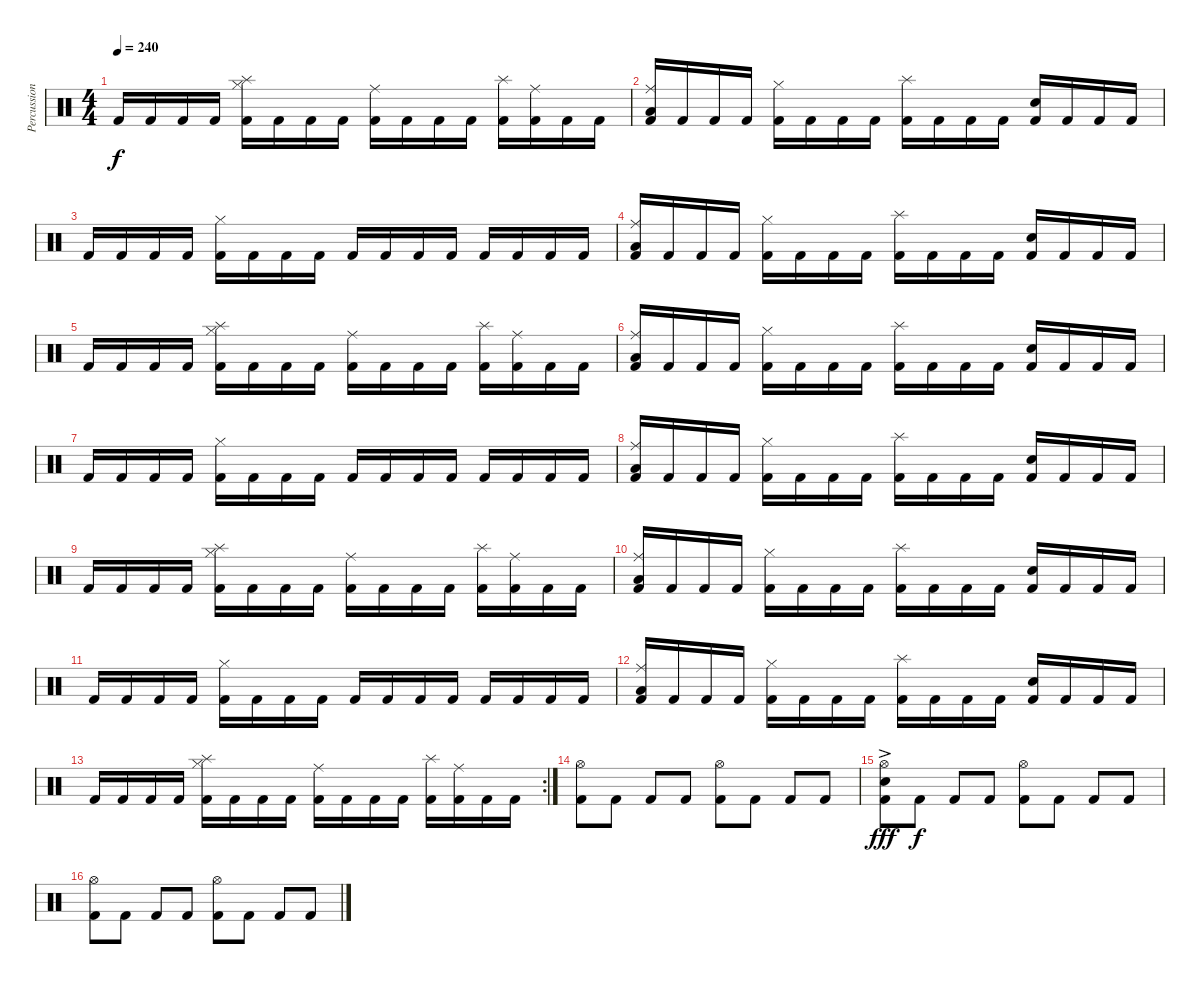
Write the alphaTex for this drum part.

\track ("Percussion" "Percussion") {instrument percussion}
\staff {score}
\articulation defaults
\ts (4 4)
\tempo 240
\clef neutral
\ks c "Kick (hit) 2".16{dy f} "Kick (hit) 2".16 "Kick (hit) 2".16 "Kick (hit) 2".16
("Kick (hit) 2" "Hi-Hat (closed)" "Splash (hit)").16 "Kick (hit) 2".16 "Kick (hit) 2".16 "Kick (hit) 2".16 ("Kick (hit) 2" "Ride (middle)").16 "Kick (hit) 2".16 "Kick (hit) 2".16 "Kick (hit) 2".16 ("Kick (hit) 2" "Splash (hit)").16 ("Kick (hit) 2" "Ride (middle)").16 "Kick (hit) 2".16 "Kick (hit) 2".16 |
("Kick (hit) 2" "Low Floor Tom (hit)" "Ride (middle)").16 "Kick (hit) 2".16 "Kick (hit) 2".16 "Kick (hit) 2".16 ("Kick (hit) 2" "Hi-Hat (closed)").16 "Kick (hit) 2".16 "Kick (hit) 2".16 "Kick (hit) 2".16 ("Kick (hit) 2" "Splash (hit)").16 "Kick (hit) 2".16 "Kick (hit) 2".16 "Kick (hit) 2".16 ("Kick (hit) 2" "Electric Snare (hit)").16 "Kick (hit) 2".16 "Kick (hit) 2".16 "Kick (hit) 2".16 |
"Kick (hit) 2".16 "Kick (hit) 2".16 "Kick (hit) 2".16 "Kick (hit) 2".16 ("Kick (hit) 2" "Hi-Hat (closed)").16 "Kick (hit) 2".16 "Kick (hit) 2".16 "Kick (hit) 2".16 "Kick (hit) 2".16 "Kick (hit) 2".16 "Kick (hit) 2".16 "Kick (hit) 2".16 "Kick (hit) 2".16 "Kick (hit) 2".16 "Kick (hit) 2".16 "Kick (hit) 2".16 |
("Kick (hit) 2" "Low Floor Tom (hit)" "Ride (middle)").16 "Kick (hit) 2".16 "Kick (hit) 2".16 "Kick (hit) 2".16 ("Kick (hit) 2" "Hi-Hat (closed)").16 "Kick (hit) 2".16 "Kick (hit) 2".16 "Kick (hit) 2".16 ("Kick (hit) 2" "Splash (hit)").16 "Kick (hit) 2".16 "Kick (hit) 2".16 "Kick (hit) 2".16 ("Kick (hit) 2" "Electric Snare (hit)").16 "Kick (hit) 2".16 "Kick (hit) 2".16 "Kick (hit) 2".16 |
"Kick (hit) 2".16 "Kick (hit) 2".16 "Kick (hit) 2".16 "Kick (hit) 2".16 ("Kick (hit) 2" "Hi-Hat (closed)" "Splash (hit)").16 "Kick (hit) 2".16 "Kick (hit) 2".16 "Kick (hit) 2".16 ("Kick (hit) 2" "Ride (middle)").16 "Kick (hit) 2".16 "Kick (hit) 2".16 "Kick (hit) 2".16 ("Kick (hit) 2" "Splash (hit)").16 ("Kick (hit) 2" "Ride (middle)").16 "Kick (hit) 2".16 "Kick (hit) 2".16 |
("Kick (hit) 2" "Low Floor Tom (hit)" "Ride (middle)").16 "Kick (hit) 2".16 "Kick (hit) 2".16 "Kick (hit) 2".16 ("Kick (hit) 2" "Hi-Hat (closed)").16 "Kick (hit) 2".16 "Kick (hit) 2".16 "Kick (hit) 2".16 ("Kick (hit) 2" "Splash (hit)").16 "Kick (hit) 2".16 "Kick (hit) 2".16 "Kick (hit) 2".16 ("Kick (hit) 2" "Electric Snare (hit)").16 "Kick (hit) 2".16 "Kick (hit) 2".16 "Kick (hit) 2".16 |
"Kick (hit) 2".16 "Kick (hit) 2".16 "Kick (hit) 2".16 "Kick (hit) 2".16 ("Kick (hit) 2" "Hi-Hat (closed)").16 "Kick (hit) 2".16 "Kick (hit) 2".16 "Kick (hit) 2".16 "Kick (hit) 2".16 "Kick (hit) 2".16 "Kick (hit) 2".16 "Kick (hit) 2".16 "Kick (hit) 2".16 "Kick (hit) 2".16 "Kick (hit) 2".16 "Kick (hit) 2".16 |
("Kick (hit) 2" "Low Floor Tom (hit)" "Ride (middle)").16 "Kick (hit) 2".16 "Kick (hit) 2".16 "Kick (hit) 2".16 ("Kick (hit) 2" "Hi-Hat (closed)").16 "Kick (hit) 2".16 "Kick (hit) 2".16 "Kick (hit) 2".16 ("Kick (hit) 2" "Splash (hit)").16 "Kick (hit) 2".16 "Kick (hit) 2".16 "Kick (hit) 2".16 ("Kick (hit) 2" "Electric Snare (hit)").16 "Kick (hit) 2".16 "Kick (hit) 2".16 "Kick (hit) 2".16 |
"Kick (hit) 2".16 "Kick (hit) 2".16 "Kick (hit) 2".16 "Kick (hit) 2".16 ("Kick (hit) 2" "Hi-Hat (closed)" "Splash (hit)").16 "Kick (hit) 2".16 "Kick (hit) 2".16 "Kick (hit) 2".16 ("Kick (hit) 2" "Ride (middle)").16 "Kick (hit) 2".16 "Kick (hit) 2".16 "Kick (hit) 2".16 ("Kick (hit) 2" "Splash (hit)").16 ("Kick (hit) 2" "Ride (middle)").16 "Kick (hit) 2".16 "Kick (hit) 2".16 |
("Kick (hit) 2" "Low Floor Tom (hit)" "Ride (middle)").16 "Kick (hit) 2".16 "Kick (hit) 2".16 "Kick (hit) 2".16 ("Kick (hit) 2" "Hi-Hat (closed)").16 "Kick (hit) 2".16 "Kick (hit) 2".16 "Kick (hit) 2".16 ("Kick (hit) 2" "Splash (hit)").16 "Kick (hit) 2".16 "Kick (hit) 2".16 "Kick (hit) 2".16 ("Kick (hit) 2" "Electric Snare (hit)").16 "Kick (hit) 2".16 "Kick (hit) 2".16 "Kick (hit) 2".16 |
"Kick (hit) 2".16 "Kick (hit) 2".16 "Kick (hit) 2".16 "Kick (hit) 2".16 ("Kick (hit) 2" "Hi-Hat (closed)").16 "Kick (hit) 2".16 "Kick (hit) 2".16 "Kick (hit) 2".16 "Kick (hit) 2".16 "Kick (hit) 2".16 "Kick (hit) 2".16 "Kick (hit) 2".16 "Kick (hit) 2".16 "Kick (hit) 2".16 "Kick (hit) 2".16 "Kick (hit) 2".16 |
("Kick (hit) 2" "Low Floor Tom (hit)" "Ride (middle)").16 "Kick (hit) 2".16 "Kick (hit) 2".16 "Kick (hit) 2".16 ("Kick (hit) 2" "Hi-Hat (closed)").16 "Kick (hit) 2".16 "Kick (hit) 2".16 "Kick (hit) 2".16 ("Kick (hit) 2" "Splash (hit)").16 "Kick (hit) 2".16 "Kick (hit) 2".16 "Kick (hit) 2".16 ("Kick (hit) 2" "Electric Snare (hit)").16 "Kick (hit) 2".16 "Kick (hit) 2".16 "Kick (hit) 2".16 |
\rc 2 "Kick (hit) 2".16 "Kick (hit) 2".16 "Kick (hit) 2".16 "Kick (hit) 2".16
("Kick (hit) 2" "Hi-Hat (closed)" "Splash (hit)").16 "Kick (hit) 2".16 "Kick (hit) 2".16 "Kick (hit) 2".16 ("Kick (hit) 2" "Ride (middle)").16 "Kick (hit) 2".16 "Kick (hit) 2".16 "Kick (hit) 2".16 ("Kick (hit) 2" "Splash (hit)").16 ("Kick (hit) 2" "Ride (middle)").16 "Kick (hit) 2".16 "Kick (hit) 2".16 |
("Kick (hit) 2" "Hi-Hat (open)").8 "Kick (hit) 2".8 "Kick (hit) 2".8 "Kick (hit) 2".8 ("Kick (hit) 2" "Hi-Hat (open)").8 "Kick (hit) 2".8 "Kick (hit) 2".8 "Kick (hit) 2".8 |
("Kick (hit) 2" "Electric Snare (hit)"{ac} "Hi-Hat (open)").8{dy fff} "Kick (hit) 2".8{dy f} "Kick (hit) 2".8 "Kick (hit) 2".8 ("Kick (hit) 2" "Hi-Hat (open)").8 "Kick (hit) 2".8 "Kick (hit) 2".8 "Kick (hit) 2".8 |
("Kick (hit) 2" "Hi-Hat (open)").8 "Kick (hit) 2".8 "Kick (hit) 2".8 "Kick (hit) 2".8 ("Kick (hit) 2" "Hi-Hat (open)").8 "Kick (hit) 2".8 "Kick (hit) 2".8 "Kick (hit) 2".8
